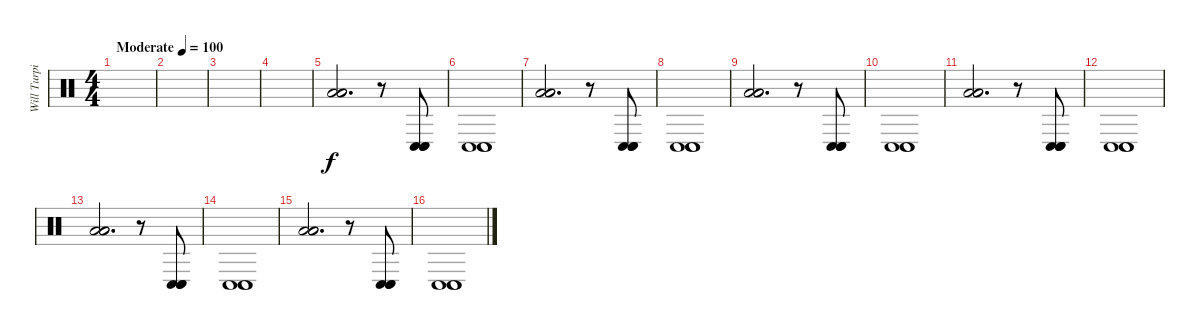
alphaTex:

\track ("Will Turpin" "Will Turpi") {instrument percussion}
\staff {score}
\articulation defaults
\ts (4 4)
\tempo (100 "Moderate")
\clef neutral
\ks c
|
|
|
|
("Low Tom (hit)" "Low Tom (hit)" "Low Tom (hit)").2{d} r.8 ("Conga low (hit)" "Conga low (hit)" "Conga low (hit)").8 |
("Conga low (hit)" "Conga low (hit)" "Conga low (hit)").1 |
("Low Tom (hit)" "Low Tom (hit)" "Low Tom (hit)").2{d} r.8 ("Conga low (hit)" "Conga low (hit)" "Conga low (hit)").8 |
("Conga low (hit)" "Conga low (hit)" "Conga low (hit)").1 |
("Low Tom (hit)" "Low Tom (hit)" "Low Tom (hit)").2{d} r.8 ("Conga low (hit)" "Conga low (hit)" "Conga low (hit)").8 |
("Conga low (hit)" "Conga low (hit)" "Conga low (hit)").1 |
("Low Tom (hit)" "Low Tom (hit)" "Low Tom (hit)").2{d} r.8 ("Conga low (hit)" "Conga low (hit)" "Conga low (hit)").8 |
("Conga low (hit)" "Conga low (hit)" "Conga low (hit)").1 |
("Low Tom (hit)" "Low Tom (hit)" "Low Tom (hit)").2{d} r.8 ("Conga low (hit)" "Conga low (hit)" "Conga low (hit)").8 |
("Conga low (hit)" "Conga low (hit)" "Conga low (hit)").1 |
("Low Tom (hit)" "Low Tom (hit)" "Low Tom (hit)").2{d} r.8 ("Conga low (hit)" "Conga low (hit)" "Conga low (hit)").8 |
("Conga low (hit)" "Conga low (hit)" "Conga low (hit)").1
